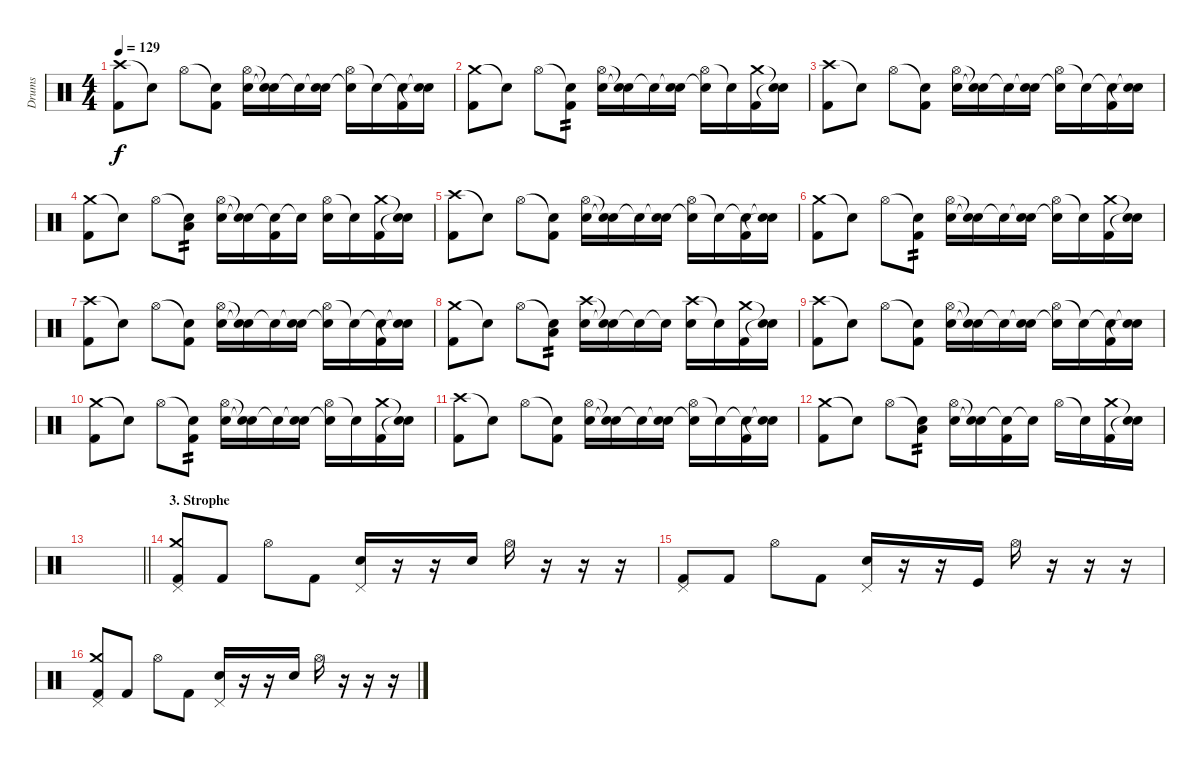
\track ("Drums" "Drums") {instrument percussion}
\staff {score}
\articulation defaults
\ts (4 4)
\tempo 129
\clef neutral
\ks c
("Crash high (hit)" "Kick (hit) 2").8{dy f} "Snare (hit)"{t}.8 "Hi-Hat (open)".8 ("Snare (hit)"{t} "Kick (hit) 2").8 ("Hi-Hat (open)" "Electric Snare (hit)").16 ("Snare (hit)"{t} "Snare (hit)"{t}).16 "Snare (hit)"{t}.16 ("Snare (hit)"{t} "Electric Snare (hit)").16 ("Hi-Hat (open)" "Snare (hit)"{t}).16 "Snare (hit)"{t}.16 ("Snare (hit)"{t} "Kick (hit) 2").16 ("Snare (hit)"{t} "Snare (hit)"{t}).16 |
("Crash medium (hit)" "Kick (hit) 2").8 "Snare (hit)"{t}.8 "Hi-Hat (open)".8 ("Snare (hit)"{t} "Kick (hit) 2").8{tp 2} ("Hi-Hat (open)" "Electric Snare (hit)").16 ("Snare (hit)"{t} "Snare (hit)"{t}).16 "Snare (hit)"{t}.16 ("Snare (hit)"{t} "Electric Snare (hit)").16 ("Hi-Hat (open)" "Snare (hit)"{t}).16 "Snare (hit)"{t}.16 ("Crash medium (hit)" "Kick (hit) 2").16 ("Snare (hit)"{t} "Snare (hit)"{t}).16 |
("Crash high (hit)" "Kick (hit) 2").8 "Snare (hit)"{t}.8 "Hi-Hat (open)".8 ("Snare (hit)"{t} "Kick (hit) 2").8 ("Hi-Hat (open)" "Electric Snare (hit)").16 ("Snare (hit)"{t} "Snare (hit)"{t}).16 "Snare (hit)"{t}.16 ("Snare (hit)"{t} "Electric Snare (hit)").16 ("Hi-Hat (open)" "Snare (hit)"{t}).16 "Snare (hit)"{t}.16 ("Snare (hit)"{t} "Kick (hit) 2").16 ("Snare (hit)"{t} "Snare (hit)"{t}).16 |
("Crash medium (hit)" "Kick (hit) 2").8 "Snare (hit)"{t}.8 "Hi-Hat (open)".8 ("Snare (hit)"{t} "Low Tom (hit)").8{tp 2} ("Hi-Hat (open)" "Electric Snare (hit)").16 ("Snare (hit)"{t} "Snare (hit)"{t}).16 ("Snare (hit)"{t} "Kick (hit) 2").16 "Snare (hit)"{t}.16 ("Hi-Hat (open)" "Electric Snare (hit)").16 "Snare (hit)"{t}.16 ("Crash medium (hit)" "Kick (hit) 2").16 ("Snare (hit)"{t} "Snare (hit)"{t}).16 |
("Crash high (hit)" "Kick (hit) 2").8 "Snare (hit)"{t}.8 "Hi-Hat (open)".8 ("Snare (hit)"{t} "Kick (hit) 2").8 ("Hi-Hat (open)" "Electric Snare (hit)").16 ("Snare (hit)"{t} "Snare (hit)"{t}).16 "Snare (hit)"{t}.16 ("Snare (hit)"{t} "Electric Snare (hit)").16 ("Hi-Hat (open)" "Snare (hit)"{t}).16 "Snare (hit)"{t}.16 ("Snare (hit)"{t} "Kick (hit) 2").16 ("Snare (hit)"{t} "Snare (hit)"{t}).16 |
("Crash medium (hit)" "Kick (hit) 2").8 "Snare (hit)"{t}.8 "Hi-Hat (open)".8 ("Snare (hit)"{t} "Kick (hit) 2").8{tp 2} ("Hi-Hat (open)" "Electric Snare (hit)").16 ("Snare (hit)"{t} "Snare (hit)"{t}).16 "Snare (hit)"{t}.16 ("Snare (hit)"{t} "Electric Snare (hit)").16 ("Hi-Hat (open)" "Snare (hit)"{t}).16 "Snare (hit)"{t}.16 ("Crash medium (hit)" "Kick (hit) 2").16 ("Snare (hit)"{t} "Snare (hit)"{t}).16 |
("Crash high (hit)" "Kick (hit) 2").8 "Snare (hit)"{t}.8 "Hi-Hat (open)".8 ("Snare (hit)"{t} "Kick (hit) 2").8 ("Hi-Hat (open)" "Electric Snare (hit)").16 ("Snare (hit)"{t} "Snare (hit)"{t}).16 "Snare (hit)"{t}.16 ("Snare (hit)"{t} "Electric Snare (hit)").16 ("Hi-Hat (open)" "Snare (hit)"{t}).16 "Snare (hit)"{t}.16 ("Snare (hit)"{t} "Kick (hit) 2").16 ("Snare (hit)"{t} "Snare (hit)"{t}).16 |
("Crash medium (hit)" "Kick (hit) 2").8 "Snare (hit)"{t}.8 "Hi-Hat (open)".8 ("Snare (hit)"{t} "Low Tom (hit)").8{tp 2} ("Crash high (hit)" "Electric Snare (hit)").16 ("Snare (hit)"{t} "Snare (hit)"{t}).16 "Snare (hit)"{t}.16 "Snare (hit)"{t}.16 ("Crash high (hit)" "Electric Snare (hit)").16 "Snare (hit)"{t}.16 ("Crash medium (hit)" "Kick (hit) 2").16 ("Snare (hit)"{t} "Snare (hit)"{t}).16 |
("Crash high (hit)" "Kick (hit) 2").8 "Snare (hit)"{t}.8 "Hi-Hat (open)".8 ("Snare (hit)"{t} "Kick (hit) 2").8 ("Hi-Hat (open)" "Electric Snare (hit)").16 ("Snare (hit)"{t} "Snare (hit)"{t}).16 "Snare (hit)"{t}.16 ("Snare (hit)"{t} "Electric Snare (hit)").16 ("Hi-Hat (open)" "Snare (hit)"{t}).16 "Snare (hit)"{t}.16 ("Snare (hit)"{t} "Kick (hit) 2").16 ("Snare (hit)"{t} "Snare (hit)"{t}).16 |
("Crash medium (hit)" "Kick (hit) 2").8 "Snare (hit)"{t}.8 "Hi-Hat (open)".8 ("Snare (hit)"{t} "Kick (hit) 2").8{tp 2} ("Hi-Hat (open)" "Electric Snare (hit)").16 ("Snare (hit)"{t} "Snare (hit)"{t}).16 "Snare (hit)"{t}.16 ("Snare (hit)"{t} "Electric Snare (hit)").16 ("Hi-Hat (open)" "Snare (hit)"{t}).16 "Snare (hit)"{t}.16 ("Crash medium (hit)" "Kick (hit) 2").16 ("Snare (hit)"{t} "Snare (hit)"{t}).16 |
("Crash high (hit)" "Kick (hit) 2").8 "Snare (hit)"{t}.8 "Hi-Hat (open)".8 ("Snare (hit)"{t} "Kick (hit) 2").8 ("Hi-Hat (open)" "Electric Snare (hit)").16 ("Snare (hit)"{t} "Snare (hit)"{t}).16 "Snare (hit)"{t}.16 ("Snare (hit)"{t} "Electric Snare (hit)").16 ("Hi-Hat (open)" "Snare (hit)"{t}).16 "Snare (hit)"{t}.16 ("Snare (hit)"{t} "Kick (hit) 2").16 ("Snare (hit)"{t} "Snare (hit)"{t}).16 |
("Crash medium (hit)" "Kick (hit) 2").8 "Snare (hit)"{t}.8 "Hi-Hat (open)".8 ("Snare (hit)"{t} "Low Tom (hit)").8{tp 2} ("Hi-Hat (open)" "Electric Snare (hit)").16 ("Snare (hit)"{t} "Snare (hit)"{t}).16 ("Snare (hit)"{t} "Kick (hit) 2").16 "Snare (hit)"{t}.16 "Hi-Hat (open)".16 "Snare (hit)"{t}.16 ("Crash medium (hit)" "Kick (hit) 2").16 ("Snare (hit)"{t} "Snare (hit)"{t}).16 |
\barLineRight lightlight
|
\section ("" "3. Strophe")
("Crash medium (hit)" "Pedal Hi-Hat (hit)" "Kick (hit) 2").8 "Kick (hit) 2".8 "Hi-Hat (open)".8 "Kick (hit) 2".8 ("Pedal Hi-Hat (hit)" "Electric Snare (hit)").16 r.16 r.16 "Electric Snare (hit)".16 "Hi-Hat (open)".16 r.16 r.16 r.16 |
("Pedal Hi-Hat (hit)" "Kick (hit) 2").8 "Kick (hit) 2".8 "Hi-Hat (open)".8 "Kick (hit) 2".8 ("Pedal Hi-Hat (hit)" "Electric Snare (hit)").16 r.16 r.16 "Kick (hit)".16 "Hi-Hat (open)".16 r.16 r.16 r.16 |
("Crash medium (hit)" "Pedal Hi-Hat (hit)" "Kick (hit) 2").8 "Kick (hit) 2".8 "Hi-Hat (open)".8 "Kick (hit) 2".8 ("Pedal Hi-Hat (hit)" "Electric Snare (hit)").16 r.16 r.16 "Electric Snare (hit)".16 "Hi-Hat (open)".16 r.16 r.16 r.16
